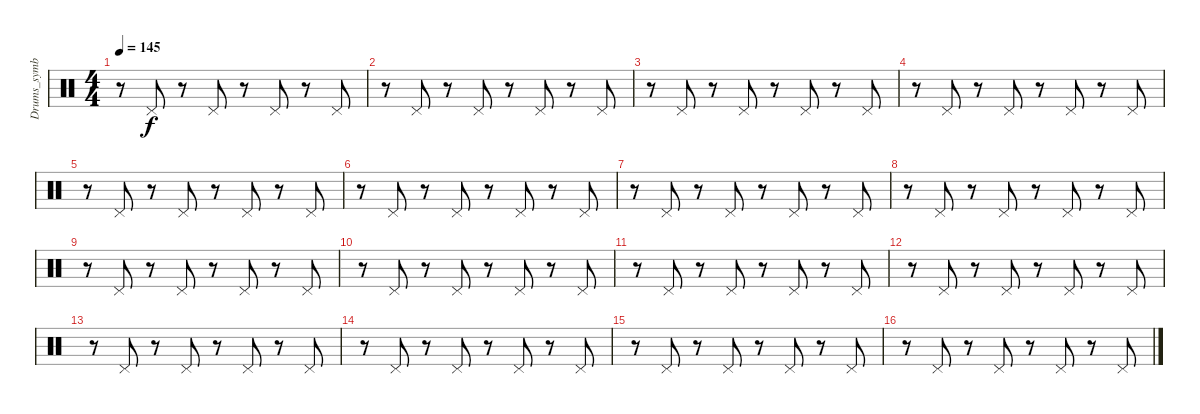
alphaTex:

\track ("Drums_symbal" "Drums_symb") {instrument percussion}
\staff {score}
\articulation defaults
\ts (4 4)
\tempo 145
\clef neutral
\ks c
r.8{dy f} "Pedal Hi-Hat (hit)".8 r.8 "Pedal Hi-Hat (hit)".8 r.8 "Pedal Hi-Hat (hit)".8 r.8 "Pedal Hi-Hat (hit)".8 |
r.8 "Pedal Hi-Hat (hit)".8 r.8 "Pedal Hi-Hat (hit)".8 r.8 "Pedal Hi-Hat (hit)".8 r.8 "Pedal Hi-Hat (hit)".8 |
r.8 "Pedal Hi-Hat (hit)".8 r.8 "Pedal Hi-Hat (hit)".8 r.8 "Pedal Hi-Hat (hit)".8 r.8 "Pedal Hi-Hat (hit)".8 |
r.8 "Pedal Hi-Hat (hit)".8 r.8 "Pedal Hi-Hat (hit)".8 r.8 "Pedal Hi-Hat (hit)".8 r.8 "Pedal Hi-Hat (hit)".8 |
r.8 "Pedal Hi-Hat (hit)".8 r.8 "Pedal Hi-Hat (hit)".8 r.8 "Pedal Hi-Hat (hit)".8 r.8 "Pedal Hi-Hat (hit)".8 |
r.8 "Pedal Hi-Hat (hit)".8 r.8 "Pedal Hi-Hat (hit)".8 r.8 "Pedal Hi-Hat (hit)".8 r.8 "Pedal Hi-Hat (hit)".8 |
r.8 "Pedal Hi-Hat (hit)".8 r.8 "Pedal Hi-Hat (hit)".8 r.8 "Pedal Hi-Hat (hit)".8 r.8 "Pedal Hi-Hat (hit)".8 |
r.8 "Pedal Hi-Hat (hit)".8 r.8 "Pedal Hi-Hat (hit)".8 r.8 "Pedal Hi-Hat (hit)".8 r.8 "Pedal Hi-Hat (hit)".8 |
r.8 "Pedal Hi-Hat (hit)".8 r.8 "Pedal Hi-Hat (hit)".8 r.8 "Pedal Hi-Hat (hit)".8 r.8 "Pedal Hi-Hat (hit)".8 |
r.8 "Pedal Hi-Hat (hit)".8 r.8 "Pedal Hi-Hat (hit)".8 r.8 "Pedal Hi-Hat (hit)".8 r.8 "Pedal Hi-Hat (hit)".8 |
r.8 "Pedal Hi-Hat (hit)".8 r.8 "Pedal Hi-Hat (hit)".8 r.8 "Pedal Hi-Hat (hit)".8 r.8 "Pedal Hi-Hat (hit)".8 |
r.8 "Pedal Hi-Hat (hit)".8 r.8 "Pedal Hi-Hat (hit)".8 r.8 "Pedal Hi-Hat (hit)".8 r.8 "Pedal Hi-Hat (hit)".8 |
r.8 "Pedal Hi-Hat (hit)".8 r.8 "Pedal Hi-Hat (hit)".8 r.8 "Pedal Hi-Hat (hit)".8 r.8 "Pedal Hi-Hat (hit)".8 |
r.8 "Pedal Hi-Hat (hit)".8 r.8 "Pedal Hi-Hat (hit)".8 r.8 "Pedal Hi-Hat (hit)".8 r.8 "Pedal Hi-Hat (hit)".8 |
r.8 "Pedal Hi-Hat (hit)".8 r.8 "Pedal Hi-Hat (hit)".8 r.8 "Pedal Hi-Hat (hit)".8 r.8 "Pedal Hi-Hat (hit)".8 |
r.8 "Pedal Hi-Hat (hit)".8 r.8 "Pedal Hi-Hat (hit)".8 r.8 "Pedal Hi-Hat (hit)".8 r.8 "Pedal Hi-Hat (hit)".8
